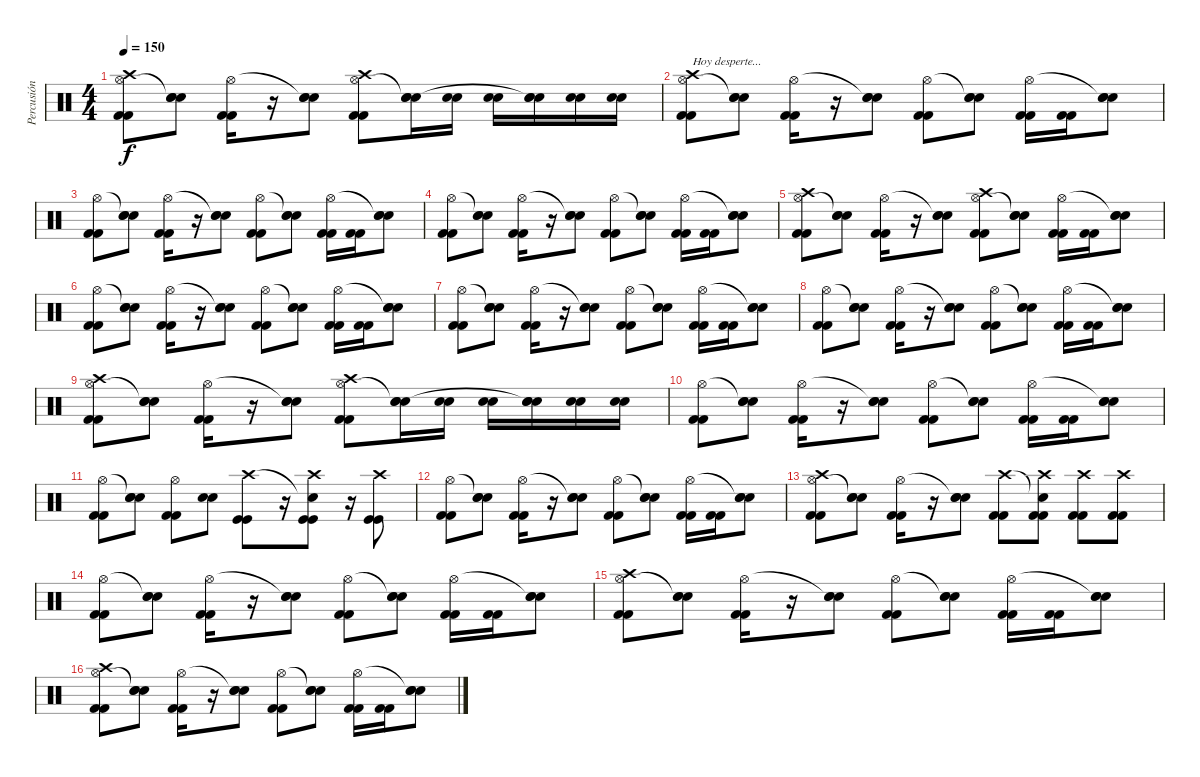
\track ("Percusión" "Percusión") {instrument percussion}
\staff {score}
\articulation defaults
\ts (4 4)
\tempo 150
\clef neutral
\ks c
("Kick (hit) 2" "Kick (hit) 2" "Hi-Hat (open)" "Crash high (hit)").8{dy f} ("Snare (hit) 2" "Snare (hit) 2" "Snare (hit)"{t}).8 ("Kick (hit) 2" "Kick (hit) 2" "Hi-Hat (open)").16 r.16 ("Snare (hit) 2" "Snare (hit) 2" "Snare (hit)"{t}).8 ("Kick (hit) 2" "Kick (hit) 2" "Hi-Hat (open)" "Crash high (hit)").8 ("Snare (hit) 2" "Snare (hit) 2" "Snare (hit)"{t}).16 ("Snare (hit) 2" "Snare (hit) 2").16 ("Snare (hit) 2" "Snare (hit) 2").16 ("Snare (hit) 2" "Snare (hit) 2" "Snare (hit)"{t}).16 ("Snare (hit) 2" "Snare (hit) 2").16 ("Snare (hit) 2" "Snare (hit) 2").16 |
("Kick (hit) 2" "Kick (hit) 2" "Hi-Hat (open)" "Crash high (hit)").8{txt "Hoy desperte..."} ("Snare (hit) 2" "Snare (hit) 2" "Snare (hit)"{t}).8 ("Kick (hit) 2" "Kick (hit) 2" "Hi-Hat (open)").16 r.16 ("Snare (hit) 2" "Snare (hit) 2" "Snare (hit)"{t}).8 ("Kick (hit) 2" "Kick (hit) 2" "Hi-Hat (open)").8 ("Snare (hit) 2" "Snare (hit) 2" "Snare (hit)"{t}).8 ("Kick (hit) 2" "Kick (hit) 2" "Hi-Hat (open)").16 ("Kick (hit) 2" "Kick (hit) 2").16 ("Snare (hit) 2" "Snare (hit) 2" "Snare (hit)"{t}).8 |
("Kick (hit) 2" "Kick (hit) 2" "Hi-Hat (open)").8 ("Snare (hit) 2" "Snare (hit) 2" "Snare (hit)"{t}).8 ("Kick (hit) 2" "Kick (hit) 2" "Hi-Hat (open)").16 r.16 ("Snare (hit) 2" "Snare (hit) 2" "Snare (hit)"{t}).8 ("Kick (hit) 2" "Kick (hit) 2" "Hi-Hat (open)").8 ("Snare (hit) 2" "Snare (hit) 2" "Snare (hit)"{t}).8 ("Kick (hit) 2" "Kick (hit) 2" "Hi-Hat (open)").16 ("Kick (hit) 2" "Kick (hit) 2").16 ("Snare (hit) 2" "Snare (hit) 2" "Snare (hit)"{t}).8 |
("Kick (hit) 2" "Kick (hit) 2" "Hi-Hat (open)").8 ("Snare (hit) 2" "Snare (hit) 2" "Snare (hit)"{t}).8 ("Kick (hit) 2" "Kick (hit) 2" "Hi-Hat (open)").16 r.16 ("Snare (hit) 2" "Snare (hit) 2" "Snare (hit)"{t}).8 ("Kick (hit) 2" "Kick (hit) 2" "Hi-Hat (open)").8 ("Snare (hit) 2" "Snare (hit) 2" "Snare (hit)"{t}).8 ("Kick (hit) 2" "Kick (hit) 2" "Hi-Hat (open)").16 ("Kick (hit) 2" "Kick (hit) 2").16 ("Snare (hit) 2" "Snare (hit) 2" "Snare (hit)"{t}).8 |
("Kick (hit) 2" "Kick (hit) 2" "Hi-Hat (open)" "Crash high (hit)").8 ("Snare (hit) 2" "Snare (hit) 2" "Snare (hit)"{t}).8 ("Kick (hit) 2" "Kick (hit) 2" "Hi-Hat (open)").16 r.16 ("Snare (hit) 2" "Snare (hit) 2" "Snare (hit)"{t}).8 ("Kick (hit) 2" "Kick (hit) 2" "Hi-Hat (open)" "Crash high (hit)").8 ("Snare (hit) 2" "Snare (hit) 2" "Snare (hit)"{t}).8 ("Kick (hit) 2" "Kick (hit) 2" "Hi-Hat (open)").16 ("Kick (hit) 2" "Kick (hit) 2").16 ("Snare (hit) 2" "Snare (hit) 2" "Snare (hit)"{t}).8 |
("Kick (hit) 2" "Kick (hit) 2" "Hi-Hat (open)").8 ("Snare (hit) 2" "Snare (hit) 2" "Snare (hit)"{t}).8 ("Kick (hit) 2" "Kick (hit) 2" "Hi-Hat (open)").16 r.16 ("Snare (hit) 2" "Snare (hit) 2" "Snare (hit)"{t}).8 ("Kick (hit) 2" "Kick (hit) 2" "Hi-Hat (open)").8 ("Snare (hit) 2" "Snare (hit) 2" "Snare (hit)"{t}).8 ("Kick (hit) 2" "Kick (hit) 2" "Hi-Hat (open)").16 ("Kick (hit) 2" "Kick (hit) 2").16 ("Snare (hit) 2" "Snare (hit) 2" "Snare (hit)"{t}).8 |
("Kick (hit) 2" "Kick (hit) 2" "Hi-Hat (open)").8 ("Snare (hit) 2" "Snare (hit) 2" "Snare (hit)"{t}).8 ("Kick (hit) 2" "Kick (hit) 2" "Hi-Hat (open)").16 r.16 ("Snare (hit) 2" "Snare (hit) 2" "Snare (hit)"{t}).8 ("Kick (hit) 2" "Kick (hit) 2" "Hi-Hat (open)").8 ("Snare (hit) 2" "Snare (hit) 2" "Snare (hit)"{t}).8 ("Kick (hit) 2" "Kick (hit) 2" "Hi-Hat (open)").16 ("Kick (hit) 2" "Kick (hit) 2").16 ("Snare (hit) 2" "Snare (hit) 2" "Snare (hit)"{t}).8 |
("Kick (hit) 2" "Kick (hit) 2" "Hi-Hat (open)").8 ("Snare (hit) 2" "Snare (hit) 2" "Snare (hit)"{t}).8 ("Kick (hit) 2" "Kick (hit) 2" "Hi-Hat (open)").16 r.16 ("Snare (hit) 2" "Snare (hit) 2" "Snare (hit)"{t}).8 ("Kick (hit) 2" "Kick (hit) 2" "Hi-Hat (open)").8 ("Snare (hit) 2" "Snare (hit) 2" "Snare (hit)"{t}).8 ("Kick (hit) 2" "Kick (hit) 2" "Hi-Hat (open)").16 ("Kick (hit) 2" "Kick (hit) 2").16 ("Snare (hit) 2" "Snare (hit) 2" "Snare (hit)"{t}).8 |
("Kick (hit) 2" "Kick (hit) 2" "Hi-Hat (open)" "Crash high (hit)").8 ("Snare (hit) 2" "Snare (hit) 2" "Snare (hit)"{t}).8 ("Kick (hit) 2" "Kick (hit) 2" "Hi-Hat (open)").16 r.16 ("Snare (hit) 2" "Snare (hit) 2" "Snare (hit)"{t}).8 ("Kick (hit) 2" "Kick (hit) 2" "Hi-Hat (open)" "Crash high (hit)").8 ("Snare (hit) 2" "Snare (hit) 2" "Snare (hit)"{t}).16 ("Snare (hit) 2" "Snare (hit) 2").16 ("Snare (hit) 2" "Snare (hit) 2").16 ("Snare (hit) 2" "Snare (hit) 2" "Snare (hit)"{t}).16 ("Snare (hit) 2" "Snare (hit) 2").16 ("Snare (hit) 2" "Snare (hit) 2").16 |
("Kick (hit) 2" "Kick (hit) 2" "Hi-Hat (open)").8 ("Snare (hit) 2" "Snare (hit) 2" "Snare (hit)"{t}).8 ("Kick (hit) 2" "Kick (hit) 2" "Hi-Hat (open)").16 r.16 ("Snare (hit) 2" "Snare (hit) 2" "Snare (hit)"{t}).8 ("Kick (hit) 2" "Kick (hit) 2" "Hi-Hat (open)").8 ("Snare (hit) 2" "Snare (hit) 2" "Snare (hit)"{t}).8 ("Kick (hit) 2" "Kick (hit) 2" "Hi-Hat (open)").16 ("Kick (hit) 2" "Kick (hit) 2").16 ("Snare (hit) 2" "Snare (hit) 2" "Snare (hit)"{t}).8 |
("Kick (hit) 2" "Kick (hit) 2" "Hi-Hat (open)").8 ("Snare (hit) 2" "Snare (hit) 2" "Snare (hit)"{t}).8 ("Kick (hit) 2" "Kick (hit) 2" "Hi-Hat (open)").8 ("Snare (hit) 2" "Snare (hit) 2").8 ("Kick (hit)" "Kick (hit)" "Crash high (hit)").8 r.16 ("Kick (hit)" "Kick (hit)" "Snare (hit)"{t} "Crash high (hit)").8 r.16 ("Kick (hit)" "Kick (hit)" "Crash high (hit)").8 |
("Kick (hit) 2" "Kick (hit) 2" "Hi-Hat (open)").8 ("Snare (hit) 2" "Snare (hit) 2" "Snare (hit)"{t}).8 ("Kick (hit) 2" "Kick (hit) 2" "Hi-Hat (open)").16 r.16 ("Snare (hit) 2" "Snare (hit) 2" "Snare (hit)"{t}).8 ("Kick (hit) 2" "Kick (hit) 2" "Hi-Hat (open)").8 ("Snare (hit) 2" "Snare (hit) 2" "Snare (hit)"{t}).8 ("Kick (hit) 2" "Kick (hit) 2" "Hi-Hat (open)").16 ("Kick (hit) 2" "Kick (hit) 2").16 ("Snare (hit) 2" "Snare (hit) 2" "Snare (hit)"{t}).8 |
("Kick (hit) 2" "Kick (hit) 2" "Hi-Hat (open)" "Crash high (hit)").8 ("Snare (hit) 2" "Snare (hit) 2" "Snare (hit)"{t}).8 ("Kick (hit) 2" "Kick (hit) 2" "Hi-Hat (open)").16 r.16 ("Snare (hit) 2" "Snare (hit) 2" "Snare (hit)"{t}).8 ("Kick (hit) 2" "Kick (hit) 2" "Crash high (hit)").8 ("Kick (hit) 2" "Kick (hit) 2" "Snare (hit)"{t} "Crash high (hit)").8 ("Kick (hit) 2" "Kick (hit) 2" "Crash high (hit)").8 ("Kick (hit) 2" "Kick (hit) 2" "Crash high (hit)").8 |
("Kick (hit) 2" "Kick (hit) 2" "Hi-Hat (open)").8 ("Snare (hit) 2" "Snare (hit) 2" "Snare (hit)"{t}).8 ("Kick (hit) 2" "Kick (hit) 2" "Hi-Hat (open)").16 r.16 ("Snare (hit) 2" "Snare (hit) 2" "Snare (hit)"{t}).8 ("Kick (hit) 2" "Kick (hit) 2" "Hi-Hat (open)").8 ("Snare (hit) 2" "Snare (hit) 2" "Snare (hit)"{t}).8 ("Kick (hit) 2" "Kick (hit) 2" "Hi-Hat (open)").16 ("Kick (hit) 2" "Kick (hit) 2").16 ("Snare (hit) 2" "Snare (hit) 2" "Snare (hit)"{t}).8 |
("Kick (hit) 2" "Kick (hit) 2" "Hi-Hat (open)" "Crash high (hit)").8 ("Snare (hit) 2" "Snare (hit) 2" "Snare (hit)"{t}).8 ("Kick (hit) 2" "Kick (hit) 2" "Hi-Hat (open)").16 r.16 ("Snare (hit) 2" "Snare (hit) 2" "Snare (hit)"{t}).8 ("Kick (hit) 2" "Kick (hit) 2" "Hi-Hat (open)").8 ("Snare (hit) 2" "Snare (hit) 2" "Snare (hit)"{t}).8 ("Kick (hit) 2" "Kick (hit) 2" "Hi-Hat (open)").16 ("Kick (hit) 2" "Kick (hit) 2").16 ("Snare (hit) 2" "Snare (hit) 2" "Snare (hit)"{t}).8 |
("Kick (hit) 2" "Kick (hit) 2" "Hi-Hat (open)" "Crash high (hit)").8 ("Snare (hit) 2" "Snare (hit) 2" "Snare (hit)"{t}).8 ("Kick (hit) 2" "Kick (hit) 2" "Hi-Hat (open)").16 r.16 ("Snare (hit) 2" "Snare (hit) 2" "Snare (hit)"{t}).8 ("Kick (hit) 2" "Kick (hit) 2" "Hi-Hat (open)").8 ("Snare (hit) 2" "Snare (hit) 2" "Snare (hit)"{t}).8 ("Kick (hit) 2" "Kick (hit) 2" "Hi-Hat (open)").16 ("Kick (hit) 2" "Kick (hit) 2").16 ("Snare (hit) 2" "Snare (hit) 2" "Snare (hit)"{t}).8
